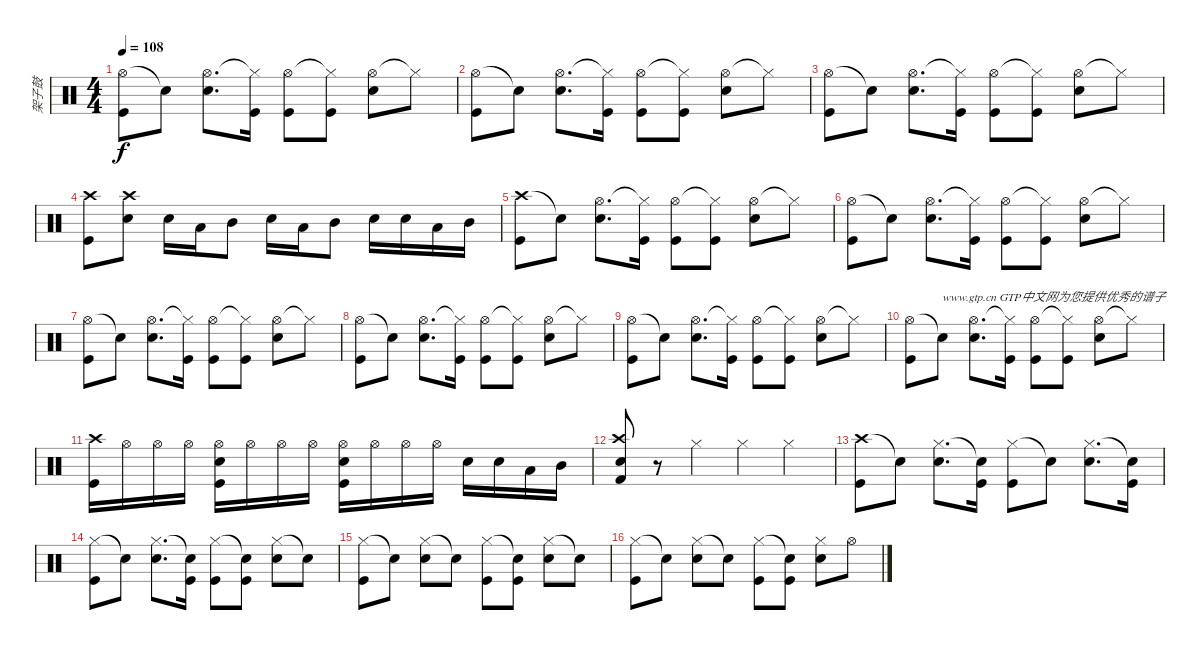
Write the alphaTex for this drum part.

\track ("架子鼓" "架子鼓") {instrument percussion}
\staff {score}
\articulation defaults
\ts (4 4)
\tempo 108
\clef neutral
\ks c
("Hi-Hat (open)" "Kick (hit)").8{dy f} "Snare (hit)"{t}.8 ("Hi-Hat (open)" "Snare (hit) 2").8{d} ("Hi-Hat (closed)"{t} "Kick (hit)").16 ("Hi-Hat (open)" "Kick (hit)").8 ("Hi-Hat (closed)"{t} "Kick (hit)").8 ("Hi-Hat (open)" "Snare (hit) 2").8 "Hi-Hat (closed)"{t}.8 |
("Hi-Hat (open)" "Kick (hit)").8 "Snare (hit)"{t}.8 ("Hi-Hat (open)" "Snare (hit) 2").8{d} ("Hi-Hat (closed)"{t} "Kick (hit)").16 ("Hi-Hat (open)" "Kick (hit)").8 ("Hi-Hat (closed)"{t} "Kick (hit)").8 ("Hi-Hat (open)" "Snare (hit) 2").8 "Hi-Hat (closed)"{t}.8 |
("Hi-Hat (open)" "Kick (hit)").8 "Snare (hit)"{t}.8 ("Hi-Hat (open)" "Snare (hit) 2").8{d} ("Hi-Hat (closed)"{t} "Kick (hit)").16 ("Hi-Hat (open)" "Kick (hit)").8 ("Hi-Hat (closed)"{t} "Kick (hit)").8 ("Hi-Hat (open)" "Snare (hit) 2").8 "Hi-Hat (closed)"{t}.8 |
("Crash high (hit)" "Kick (hit)").8 ("Crash high (hit)" "Snare (hit) 2").8 "Snare (hit) 2".16 "Low Tom (hit)".16 "Mid Tom (hit)".8 "Snare (hit) 2".16 "Low Tom (hit)".16 "Mid Tom (hit)".8 "Snare (hit) 2".16 "Snare (hit) 2".16 "Low Tom (hit)".16 "Mid Tom (hit)".16 |
("Crash high (hit)" "Kick (hit)").8 "Snare (hit)"{t}.8 ("Hi-Hat (open)" "Snare (hit) 2").8{d} ("Hi-Hat (closed)"{t} "Kick (hit)").16 ("Hi-Hat (open)" "Kick (hit)").8 ("Hi-Hat (closed)"{t} "Kick (hit)").8 ("Hi-Hat (open)" "Snare (hit) 2").8 "Hi-Hat (closed)"{t}.8 |
("Hi-Hat (open)" "Kick (hit)").8 "Snare (hit)"{t}.8 ("Hi-Hat (open)" "Snare (hit) 2").8{d} ("Hi-Hat (closed)"{t} "Kick (hit)").16 ("Hi-Hat (open)" "Kick (hit)").8 ("Hi-Hat (closed)"{t} "Kick (hit)").8 ("Hi-Hat (open)" "Snare (hit) 2").8 "Hi-Hat (closed)"{t}.8 |
("Hi-Hat (open)" "Kick (hit)").8 "Snare (hit)"{t}.8 ("Hi-Hat (open)" "Snare (hit) 2").8{d} ("Hi-Hat (closed)"{t} "Kick (hit)").16 ("Hi-Hat (open)" "Kick (hit)").8 ("Hi-Hat (closed)"{t} "Kick (hit)").8 ("Hi-Hat (open)" "Snare (hit) 2").8 "Hi-Hat (closed)"{t}.8 |
("Hi-Hat (open)" "Kick (hit)").8 "Snare (hit)"{t}.8 ("Hi-Hat (open)" "Snare (hit) 2").8{d} ("Hi-Hat (closed)"{t} "Kick (hit)").16 ("Hi-Hat (open)" "Kick (hit)").8 ("Hi-Hat (closed)"{t} "Kick (hit)").8 ("Hi-Hat (open)" "Snare (hit) 2").8 "Hi-Hat (closed)"{t}.8 |
("Hi-Hat (open)" "Kick (hit)").8 "Snare (hit)"{t}.8 ("Hi-Hat (open)" "Snare (hit) 2").8{d} ("Hi-Hat (closed)"{t} "Kick (hit)").16 ("Hi-Hat (open)" "Kick (hit)").8 ("Hi-Hat (closed)"{t} "Kick (hit)").8 ("Hi-Hat (open)" "Snare (hit) 2").8 "Hi-Hat (closed)"{t}.8 |
("Hi-Hat (open)" "Kick (hit)").8 "Snare (hit)"{t}.8{txt "www.gtp.cn GTP中文网为您提供优秀的谱子"} ("Hi-Hat (open)" "Snare (hit) 2").8{d} ("Hi-Hat (closed)"{t} "Kick (hit)").16 ("Hi-Hat (open)" "Kick (hit)").8 ("Hi-Hat (closed)"{t} "Kick (hit)").8 ("Hi-Hat (open)" "Snare (hit) 2").8 "Hi-Hat (closed)"{t}.8 |
("Crash high (hit)" "Kick (hit)").16 "Hi-Hat (open)".16 "Hi-Hat (open)".16 "Hi-Hat (open)".16 ("Hi-Hat (open)" "Snare (hit) 2" "Kick (hit)").16 "Hi-Hat (open)".16 "Hi-Hat (open)".16 "Hi-Hat (open)".16 ("Hi-Hat (open)" "Snare (hit) 2" "Kick (hit)").16 "Hi-Hat (open)".16 "Hi-Hat (open)".16 "Hi-Hat (open)".16 "Snare (hit) 2".16 "Snare (hit) 2".16 "Low Tom (hit)".16 "Mid Tom (hit)".16 |
("Crash high (hit)" "Snare (hit) 2" "Kick (hit) 2").8 r.8 "Hi-Hat (closed)".4 "Hi-Hat (closed)".4 "Hi-Hat (closed)".4 |
("Crash high (hit)" "Kick (hit)").8 "Snare (hit)"{t}.8 ("Hi-Hat (closed)" "Snare (hit) 2").8{d} ("Snare (hit)"{t} "Kick (hit)").16 ("Hi-Hat (closed)" "Kick (hit)").8 "Snare (hit)"{t}.8 ("Hi-Hat (closed)" "Snare (hit) 2").8{d} ("Snare (hit)"{t} "Kick (hit)").16 |
("Hi-Hat (closed)" "Kick (hit)").8 "Snare (hit)"{t}.8 ("Hi-Hat (closed)" "Snare (hit) 2").8{d} ("Snare (hit)"{t} "Kick (hit)").16 ("Hi-Hat (closed)" "Kick (hit)").8 ("Snare (hit)"{t} "Kick (hit)").8 ("Hi-Hat (closed)" "Snare (hit) 2").8 "Snare (hit)"{t}.8 |
("Hi-Hat (closed)" "Kick (hit)").8 "Snare (hit)"{t}.8 ("Hi-Hat (closed)" "Snare (hit) 2").8 "Snare (hit)"{t}.8 ("Hi-Hat (closed)" "Kick (hit)").8 ("Snare (hit)"{t} "Kick (hit)").8 ("Hi-Hat (closed)" "Snare (hit) 2").8 "Snare (hit)"{t}.8 |
("Hi-Hat (closed)" "Kick (hit)").8 "Snare (hit)"{t}.8 ("Hi-Hat (closed)" "Snare (hit) 2").8 "Snare (hit)"{t}.8 ("Hi-Hat (closed)" "Kick (hit)").8 ("Snare (hit)"{t} "Kick (hit)").8 ("Hi-Hat (closed)" "Snare (hit) 2").8 "Hi-Hat (open)".8
